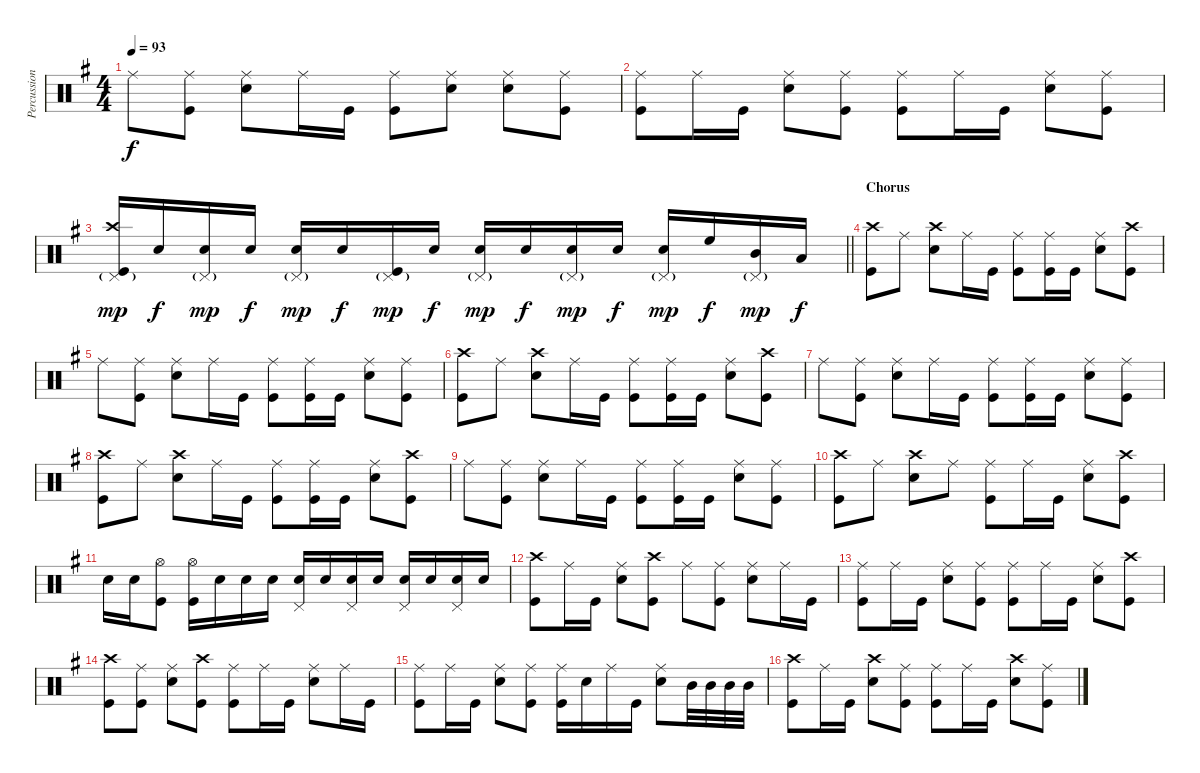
\track ("Percussion" "Percussion") {instrument percussion}
\staff {score}
\articulation defaults
\ts (4 4)
\tempo 93
\clef neutral
\ks g "Ride (middle)".8{dy f}
("Ride (middle)" "Kick (hit)").8 ("Ride (middle)" "Snare (hit) 2").8 "Ride (middle)".16 "Kick (hit)".16 ("Ride (middle)" "Kick (hit)").8 ("Ride (middle)" "Snare (hit) 2").8 ("Ride (middle)" "Snare (hit) 2").8 ("Ride (middle)" "Kick (hit)").8 |
("Ride (middle)" "Kick (hit)").8 "Ride (middle)".16 "Kick (hit)".16 ("Ride (middle)" "Snare (hit) 2").8 ("Ride (middle)" "Kick (hit)").8 ("Ride (middle)" "Kick (hit)").8 "Ride (middle)".16 "Kick (hit)".16 ("Ride (middle)" "Snare (hit) 2").8 ("Ride (middle)" "Kick (hit)").8 |
\barLineRight lightlight
("Crash high (hit)" "Pedal Hi-Hat (hit)"{g} "Kick (hit)").16{dy mp} "Snare (hit) 2".16{dy f} ("Snare (hit) 2" "Pedal Hi-Hat (hit)"{g}).16{dy mp} "Snare (hit) 2".16{dy f} ("Snare (hit) 2" "Pedal Hi-Hat (hit)"{g}).16{dy mp} "Snare (hit) 2".16{dy f} ("Pedal Hi-Hat (hit)"{g} "Kick (hit)").16{dy mp} "Snare (hit) 2".16{dy f} ("Snare (hit) 2" "Pedal Hi-Hat (hit)"{g}).16{dy mp} "Snare (hit) 2".16{dy f} ("Snare (hit) 2" "Pedal Hi-Hat (hit)"{g}).16{dy mp} "Snare (hit) 2".16{dy f} ("Snare (hit) 2" "Pedal Hi-Hat (hit)"{g}).16{dy mp} "High Floor Tom (hit)".16{dy f} ("Mid Tom (hit)" "Pedal Hi-Hat (hit)"{g}).16{dy mp} "Low Floor Tom (hit)".16{dy f} |
\section ("" "Chorus")
("Crash high (hit)" "Kick (hit)").8 "Ride (middle)".8 ("Crash high (hit)" "Snare (hit) 2").8 "Ride (middle)".16 "Kick (hit)".16 ("Ride (middle)" "Kick (hit)").8 ("Ride (middle)" "Kick (hit)").16 "Kick (hit)".16 ("Ride (middle)" "Snare (hit) 2").8 ("Crash high (hit)" "Kick (hit)").8 |
"Ride (middle)".8 ("Ride (middle)" "Kick (hit)").8 ("Ride (middle)" "Snare (hit) 2").8 "Ride (middle)".16 "Kick (hit)".16 ("Ride (middle)" "Kick (hit)").8 ("Ride (middle)" "Kick (hit)").16 "Kick (hit)".16 ("Ride (middle)" "Snare (hit) 2").8 ("Ride (middle)" "Kick (hit)").8 |
("Crash high (hit)" "Kick (hit)").8 "Ride (middle)".8 ("Crash high (hit)" "Snare (hit) 2").8 "Ride (middle)".16 "Kick (hit)".16 ("Ride (middle)" "Kick (hit)").8 ("Ride (middle)" "Kick (hit)").16 "Kick (hit)".16 ("Ride (middle)" "Snare (hit) 2").8 ("Crash high (hit)" "Kick (hit)").8 |
"Ride (middle)".8 ("Ride (middle)" "Kick (hit)").8 ("Ride (middle)" "Snare (hit) 2").8 "Ride (middle)".16 "Kick (hit)".16 ("Ride (middle)" "Kick (hit)").8 ("Ride (middle)" "Kick (hit)").16 "Kick (hit)".16 ("Ride (middle)" "Snare (hit) 2").8 ("Ride (middle)" "Kick (hit)").8 |
("Crash high (hit)" "Kick (hit)").8 "Ride (middle)".8 ("Crash high (hit)" "Snare (hit) 2").8 "Ride (middle)".16 "Kick (hit)".16 ("Ride (middle)" "Kick (hit)").8 ("Ride (middle)" "Kick (hit)").16 "Kick (hit)".16 ("Ride (middle)" "Snare (hit) 2").8 ("Crash high (hit)" "Kick (hit)").8 |
"Ride (middle)".8 ("Ride (middle)" "Kick (hit)").8 ("Ride (middle)" "Snare (hit) 2").8 "Ride (middle)".16 "Kick (hit)".16 ("Ride (middle)" "Kick (hit)").8 ("Ride (middle)" "Kick (hit)").16 "Kick (hit)".16 ("Ride (middle)" "Snare (hit) 2").8 ("Ride (middle)" "Kick (hit)").8 |
("Crash high (hit)" "Kick (hit)").8 "Ride (middle)".8 ("Crash high (hit)" "Snare (hit) 2").8 "Ride (middle)".8 ("Ride (middle)" "Kick (hit)").8 "Ride (middle)".16 "Kick (hit)".16 ("Ride (middle)" "Snare (hit) 2").8 ("Crash high (hit)" "Kick (hit)").8 |
"Snare (hit) 2".16 "Snare (hit) 2".16 ("Hi-Hat (open)" "Kick (hit)").8 ("Hi-Hat (open)" "Kick (hit)").16 "Snare (hit) 2".16 "Snare (hit) 2".16 "Snare (hit) 2".16 ("Snare (hit) 2" "Pedal Hi-Hat (hit)").16 "Snare (hit) 2".16 ("Snare (hit) 2" "Pedal Hi-Hat (hit)").16 "Snare (hit) 2".16 ("Snare (hit) 2" "Pedal Hi-Hat (hit)").16 "Snare (hit) 2".16 ("Snare (hit) 2" "Pedal Hi-Hat (hit)").16 "Snare (hit) 2".16 |
("Crash high (hit)" "Kick (hit)").8 "Ride (middle)".16 "Kick (hit)".16 ("Ride (middle)" "Snare (hit) 2").8 ("Crash high (hit)" "Kick (hit)").8 "Ride (middle)".8 ("Ride (middle)" "Kick (hit)").8 ("Ride (middle)" "Snare (hit) 2").8 "Ride (middle)".16 "Kick (hit)".16 |
("Ride (middle)" "Kick (hit)").8 "Ride (middle)".16 "Kick (hit)".16 ("Ride (middle)" "Snare (hit) 2").8 ("Ride (middle)" "Kick (hit)").8 ("Ride (middle)" "Kick (hit)").8 "Ride (middle)".16 "Kick (hit)".16 ("Ride (middle)" "Snare (hit) 2").8 ("Crash high (hit)" "Kick (hit)").8 |
("Crash high (hit)" "Kick (hit)").8 ("Ride (middle)" "Kick (hit)").8 ("Ride (middle)" "Snare (hit) 2").8 ("Crash high (hit)" "Kick (hit)").8 ("Ride (middle)" "Kick (hit)").8 "Ride (middle)".16 "Kick (hit)".16 ("Ride (middle)" "Snare (hit) 2").8 "Ride (middle)".16 "Kick (hit)".16 |
("Ride (middle)" "Kick (hit)").8 "Ride (middle)".16 "Kick (hit)".16 ("Ride (middle)" "Snare (hit) 2").8 ("Ride (middle)" "Kick (hit)").8 ("Ride (middle)" "Kick (hit)").16 "Snare (hit) 2".16 "Ride (middle)".16 "Kick (hit)".16 ("Ride (middle)" "Snare (hit) 2").8 "Mid Tom (hit)".32 "Mid Tom (hit)".32 "Mid Tom (hit)".32 "Mid Tom (hit)".32 |
("Crash high (hit)" "Kick (hit)").8 "Ride (middle)".16 "Kick (hit)".16 ("Crash high (hit)" "Snare (hit) 2").8 ("Ride (middle)" "Kick (hit)").8 ("Ride (middle)" "Kick (hit)").8 "Ride (middle)".16 "Kick (hit)".16 ("Crash high (hit)" "Snare (hit) 2").8 ("Ride (middle)" "Kick (hit)").8
